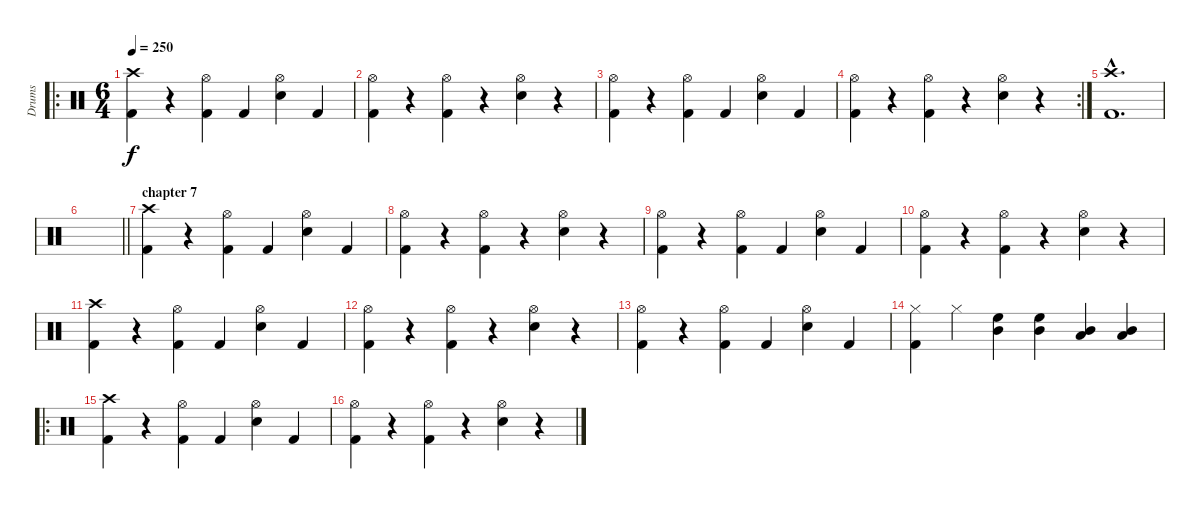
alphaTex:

\track ("Drums" "Drums") {instrument percussion}
\staff {score}
\articulation defaults
\ro
\ts (6 4)
\tempo 250
\clef neutral
\ks c
("Crash high (hit)" "Kick (hit) 2").4{dy f} r.4 ("Hi-Hat (open)" "Kick (hit) 2").4 "Kick (hit) 2".4 ("Hi-Hat (open)" "Snare (hit) 2").4 "Kick (hit) 2".4 |
("Hi-Hat (open)" "Kick (hit) 2").4 r.4 ("Hi-Hat (open)" "Kick (hit) 2").4 r.4 ("Hi-Hat (open)" "Snare (hit) 2").4 r.4 |
("Hi-Hat (open)" "Kick (hit) 2").4 r.4 ("Hi-Hat (open)" "Kick (hit) 2").4 "Kick (hit) 2".4 ("Hi-Hat (open)" "Snare (hit) 2").4 "Kick (hit) 2".4 |
\rc 2
("Hi-Hat (open)" "Kick (hit) 2").4 r.4 ("Hi-Hat (open)" "Kick (hit) 2").4 r.4 ("Hi-Hat (open)" "Snare (hit) 2").4 r.4 |
("Crash high (hit)"{hac} "Kick (hit) 2"{hac}).1{d} |
\barLineRight lightlight
|
\section ("" "chapter 7")
("Crash high (hit)" "Kick (hit) 2").4 r.4 ("Hi-Hat (open)" "Kick (hit) 2").4 "Kick (hit) 2".4 ("Hi-Hat (open)" "Snare (hit) 2").4 "Kick (hit) 2".4 |
("Hi-Hat (open)" "Kick (hit) 2").4 r.4 ("Hi-Hat (open)" "Kick (hit) 2").4 r.4 ("Hi-Hat (open)" "Snare (hit) 2").4 r.4 |
("Hi-Hat (open)" "Kick (hit) 2").4 r.4 ("Hi-Hat (open)" "Kick (hit) 2").4 "Kick (hit) 2".4 ("Hi-Hat (open)" "Snare (hit) 2").4 "Kick (hit) 2".4 |
("Hi-Hat (open)" "Kick (hit) 2").4 r.4 ("Hi-Hat (open)" "Kick (hit) 2").4 r.4 ("Hi-Hat (open)" "Snare (hit) 2").4 r.4 |
("Crash high (hit)" "Kick (hit) 2").4 r.4 ("Hi-Hat (open)" "Kick (hit) 2").4 "Kick (hit) 2".4 ("Hi-Hat (open)" "Snare (hit) 2").4 "Kick (hit) 2".4 |
("Hi-Hat (open)" "Kick (hit) 2").4 r.4 ("Hi-Hat (open)" "Kick (hit) 2").4 r.4 ("Hi-Hat (open)" "Snare (hit) 2").4 r.4 |
("Hi-Hat (open)" "Kick (hit) 2").4 r.4 ("Hi-Hat (open)" "Kick (hit) 2").4 "Kick (hit) 2".4 ("Hi-Hat (open)" "Snare (hit) 2").4 "Kick (hit) 2".4 |
("Hi-Hat (closed)" "Kick (hit) 2").4 "Hi-Hat (closed)".4 ("Mid Tom (hit)" "High Floor Tom (hit)").4 ("Mid Tom (hit)" "High Floor Tom (hit)").4 ("Low Tom (hit)" "Mid Tom (hit)").4 ("Low Tom (hit)" "Mid Tom (hit)").4 |
\ro
("Crash high (hit)" "Kick (hit) 2").4 r.4 ("Hi-Hat (open)" "Kick (hit) 2").4 "Kick (hit) 2".4 ("Hi-Hat (open)" "Snare (hit) 2").4 "Kick (hit) 2".4 |
("Hi-Hat (open)" "Kick (hit) 2").4 r.4 ("Hi-Hat (open)" "Kick (hit) 2").4 r.4 ("Hi-Hat (open)" "Snare (hit) 2").4 r.4
